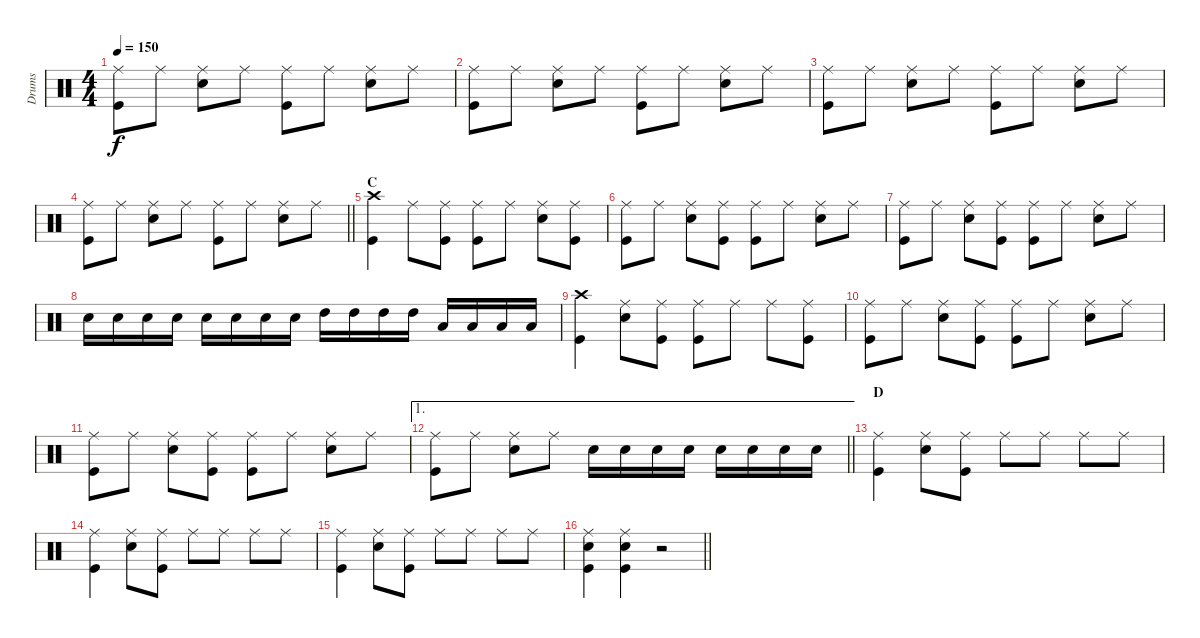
\track ("Drums" "Drums") {instrument percussion}
\staff {score}
\articulation defaults
\ts (4 4)
\tempo 150
\clef neutral
\ks c
("Ride (middle)" "Kick (hit)").8{dy f} "Ride (middle)".8 ("Ride (middle)" "Snare (hit) 2").8 "Ride (middle)".8 ("Ride (middle)" "Kick (hit)").8 "Ride (middle)".8 ("Ride (middle)" "Snare (hit) 2").8 "Ride (middle)".8 |
("Ride (middle)" "Kick (hit)").8 "Ride (middle)".8 ("Ride (middle)" "Snare (hit) 2").8 "Ride (middle)".8 ("Ride (middle)" "Kick (hit)").8 "Ride (middle)".8 ("Ride (middle)" "Snare (hit) 2").8 "Ride (middle)".8 |
("Ride (middle)" "Kick (hit)").8 "Ride (middle)".8 ("Ride (middle)" "Snare (hit) 2").8 "Ride (middle)".8 ("Ride (middle)" "Kick (hit)").8 "Ride (middle)".8 ("Ride (middle)" "Snare (hit) 2").8 "Ride (middle)".8 |
\barLineRight lightlight
("Ride (middle)" "Kick (hit)").8 "Ride (middle)".8 ("Ride (middle)" "Snare (hit) 2").8 "Ride (middle)".8 ("Ride (middle)" "Kick (hit)").8 "Ride (middle)".8 ("Ride (middle)" "Snare (hit) 2").8 "Ride (middle)".8 |
\section ("" "C")
("Crash high (hit)" "Kick (hit)").4 "Ride (middle)".8 ("Ride (middle)" "Kick (hit)").8 ("Ride (middle)" "Kick (hit)").8 "Ride (middle)".8 ("Ride (middle)" "Snare (hit) 2").8 ("Ride (middle)" "Kick (hit)").8 |
("Ride (middle)" "Kick (hit)").8 "Ride (middle)".8 ("Ride (middle)" "Snare (hit) 2").8 ("Ride (middle)" "Kick (hit)").8 ("Ride (middle)" "Kick (hit)").8 "Ride (middle)".8 ("Ride (middle)" "Snare (hit) 2").8 "Ride (middle)".8 |
("Ride (middle)" "Kick (hit)").8 "Ride (middle)".8 ("Ride (middle)" "Snare (hit) 2").8 ("Ride (middle)" "Kick (hit)").8 ("Ride (middle)" "Kick (hit)").8 "Ride (middle)".8 ("Ride (middle)" "Snare (hit) 2").8 "Ride (middle)".8 |
"Snare (hit) 2".16 "Snare (hit) 2".16 "Snare (hit) 2".16 "Snare (hit) 2".16 "Snare (hit) 2".16 "Snare (hit) 2".16 "Snare (hit) 2".16 "Snare (hit) 2".16 "High Tom (hit)".16 "High Tom (hit)".16 "High Tom (hit)".16 "High Tom (hit)".16 "Low Tom (hit)".16 "Low Tom (hit)".16 "Low Tom (hit)".16 "Low Tom (hit)".16 |
("Crash high (hit)" "Kick (hit)").4 ("Ride (middle)" "Snare (hit) 2").8 ("Ride (middle)" "Kick (hit)").8 ("Ride (middle)" "Kick (hit)").8 "Ride (middle)".8 "Ride (middle)".8 ("Ride (middle)" "Kick (hit)").8 |
("Ride (middle)" "Kick (hit)").8 "Ride (middle)".8 ("Ride (middle)" "Snare (hit) 2").8 ("Ride (middle)" "Kick (hit)").8 ("Ride (middle)" "Kick (hit)").8 "Ride (middle)".8 ("Ride (middle)" "Snare (hit) 2").8 "Ride (middle)".8 |
("Ride (middle)" "Kick (hit)").8 "Ride (middle)".8 ("Ride (middle)" "Snare (hit) 2").8 ("Ride (middle)" "Kick (hit)").8 ("Ride (middle)" "Kick (hit)").8 "Ride (middle)".8 ("Ride (middle)" "Snare (hit) 2").8 "Ride (middle)".8 |
\ae 1
\barLineRight lightlight
("Ride (middle)" "Kick (hit)").8 "Ride (middle)".8 ("Ride (middle)" "Snare (hit) 2").8 "Ride (middle)".8 "Snare (hit) 2".16 "Snare (hit) 2".16 "Snare (hit) 2".16 "Snare (hit) 2".16 "Snare (hit) 2".16 "Snare (hit) 2".16 "Snare (hit) 2".16 "Snare (hit) 2".16 |
\section ("" "D")
("Ride (middle)" "Kick (hit)").4 ("Ride (middle)" "Snare (hit) 2").8 ("Ride (middle)" "Kick (hit)").8 "Ride (middle)".8 "Ride (middle)".8 "Ride (middle)".8 "Ride (middle)".8 |
("Ride (middle)" "Kick (hit)").4 ("Ride (middle)" "Snare (hit) 2").8 ("Ride (middle)" "Kick (hit)").8 "Ride (middle)".8 "Ride (middle)".8 "Ride (middle)".8 "Ride (middle)".8 |
("Ride (middle)" "Kick (hit)").4 ("Ride (middle)" "Snare (hit) 2").8 ("Ride (middle)" "Kick (hit)").8 "Ride (middle)".8 "Ride (middle)".8 "Ride (middle)".8 "Ride (middle)".8 |
\barLineRight lightlight
("Ride (middle)" "Snare (hit) 2" "Kick (hit)").4 ("Ride (middle)" "Snare (hit) 2" "Kick (hit)").4 r.2
